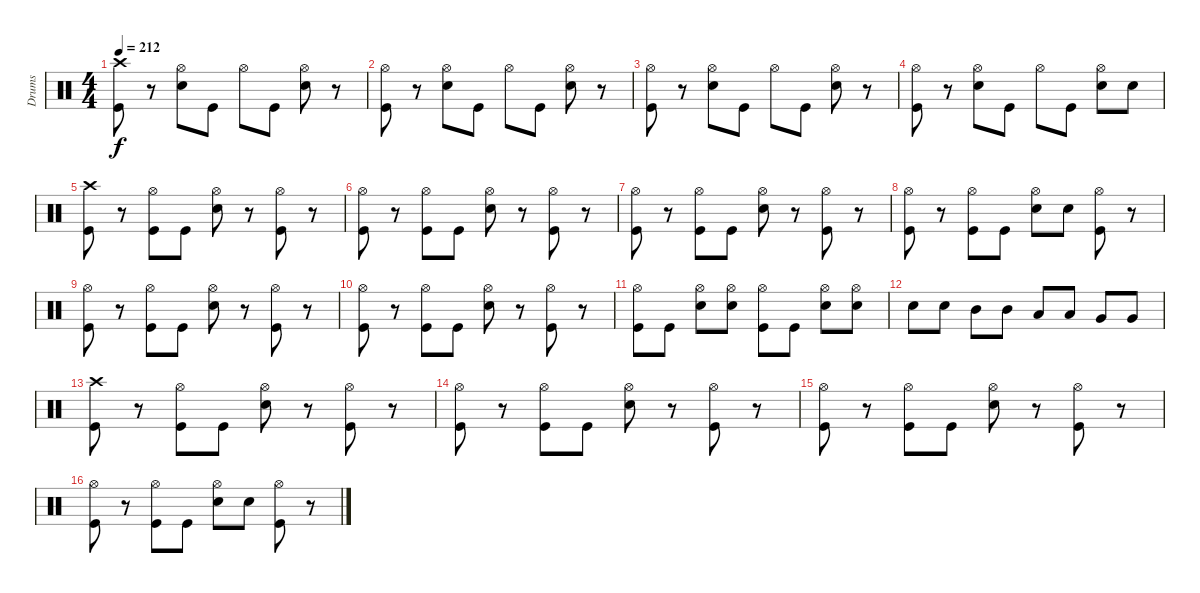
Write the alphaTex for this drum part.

\track ("Drums" "Drums") {instrument percussion}
\staff {score}
\articulation defaults
\ts (4 4)
\tempo 212
\clef neutral
\ks c
("Crash high (hit)" "Kick (hit)").8{dy f} r.8 ("Hi-Hat (open)" "Snare (hit) 2").8 "Kick (hit)".8 "Hi-Hat (open)".8 "Kick (hit)".8 ("Hi-Hat (open)" "Snare (hit) 2").8 r.8 |
("Hi-Hat (open)" "Kick (hit)").8 r.8 ("Hi-Hat (open)" "Snare (hit) 2").8 "Kick (hit)".8 "Hi-Hat (open)".8 "Kick (hit)".8 ("Hi-Hat (open)" "Snare (hit) 2").8 r.8 |
("Hi-Hat (open)" "Kick (hit)").8 r.8 ("Hi-Hat (open)" "Snare (hit) 2").8 "Kick (hit)".8 "Hi-Hat (open)".8 "Kick (hit)".8 ("Hi-Hat (open)" "Snare (hit) 2").8 r.8 |
("Hi-Hat (open)" "Kick (hit)").8 r.8 ("Hi-Hat (open)" "Snare (hit) 2").8 "Kick (hit)".8 "Hi-Hat (open)".8 "Kick (hit)".8 ("Hi-Hat (open)" "Snare (hit) 2").8 "Snare (hit) 2".8 |
("Crash high (hit)" "Kick (hit)").8 r.8 ("Hi-Hat (open)" "Kick (hit)").8 "Kick (hit)".8 ("Hi-Hat (open)" "Snare (hit) 2").8 r.8 ("Hi-Hat (open)" "Kick (hit)").8 r.8 |
("Hi-Hat (open)" "Kick (hit)").8 r.8 ("Hi-Hat (open)" "Kick (hit)").8 "Kick (hit)".8 ("Hi-Hat (open)" "Snare (hit) 2").8 r.8 ("Hi-Hat (open)" "Kick (hit)").8 r.8 |
("Hi-Hat (open)" "Kick (hit)").8 r.8 ("Hi-Hat (open)" "Kick (hit)").8 "Kick (hit)".8 ("Hi-Hat (open)" "Snare (hit) 2").8 r.8 ("Hi-Hat (open)" "Kick (hit)").8 r.8 |
("Hi-Hat (open)" "Kick (hit)").8 r.8 ("Hi-Hat (open)" "Kick (hit)").8 "Kick (hit)".8 ("Hi-Hat (open)" "Snare (hit) 2").8 "Snare (hit) 2".8 ("Hi-Hat (open)" "Kick (hit)").8 r.8 |
("Hi-Hat (open)" "Kick (hit)").8 r.8 ("Hi-Hat (open)" "Kick (hit)").8 "Kick (hit)".8 ("Hi-Hat (open)" "Snare (hit) 2").8 r.8 ("Hi-Hat (open)" "Kick (hit)").8 r.8 |
("Hi-Hat (open)" "Kick (hit)").8 r.8 ("Hi-Hat (open)" "Kick (hit)").8 "Kick (hit)".8 ("Hi-Hat (open)" "Snare (hit) 2").8 r.8 ("Hi-Hat (open)" "Kick (hit)").8 r.8 |
("Hi-Hat (open)" "Kick (hit)").8 "Kick (hit)".8 ("Hi-Hat (open)" "Snare (hit) 2").8 ("Hi-Hat (open)" "Snare (hit) 2").8 ("Hi-Hat (open)" "Kick (hit)").8 "Kick (hit)".8 ("Hi-Hat (open)" "Snare (hit) 2").8 ("Hi-Hat (open)" "Snare (hit) 2").8 |
"Snare (hit) 2".8 "Snare (hit) 2".8 "Mid Tom (hit)".8 "Mid Tom (hit)".8 "Low Tom (hit)".8 "Low Tom (hit)".8 "Very Low Tom (hit)".8 "Very Low Tom (hit)".8 |
("Crash high (hit)" "Kick (hit)").8 r.8 ("Hi-Hat (open)" "Kick (hit)").8 "Kick (hit)".8 ("Hi-Hat (open)" "Snare (hit) 2").8 r.8 ("Hi-Hat (open)" "Kick (hit)").8 r.8 |
("Hi-Hat (open)" "Kick (hit)").8 r.8 ("Hi-Hat (open)" "Kick (hit)").8 "Kick (hit)".8 ("Hi-Hat (open)" "Snare (hit) 2").8 r.8 ("Hi-Hat (open)" "Kick (hit)").8 r.8 |
("Hi-Hat (open)" "Kick (hit)").8 r.8 ("Hi-Hat (open)" "Kick (hit)").8 "Kick (hit)".8 ("Hi-Hat (open)" "Snare (hit) 2").8 r.8 ("Hi-Hat (open)" "Kick (hit)").8 r.8 |
("Hi-Hat (open)" "Kick (hit)").8 r.8 ("Hi-Hat (open)" "Kick (hit)").8 "Kick (hit)".8 ("Hi-Hat (open)" "Snare (hit) 2").8 "Snare (hit) 2".8 ("Hi-Hat (open)" "Kick (hit)").8 r.8
